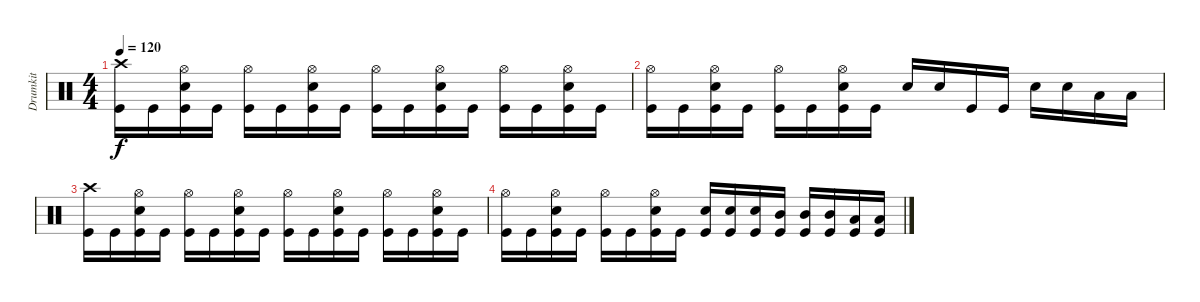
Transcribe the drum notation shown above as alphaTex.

\track ("Drumkit" "Drumkit") {instrument percussion}
\staff {score}
\articulation defaults
\ts (4 4)
\tempo 120
\clef neutral
\ks c
("Crash high (hit)" "Kick (hit)").16{dy f} "Kick (hit)".16 ("Hi-Hat (open)" "Snare (hit) 2" "Kick (hit)").16 "Kick (hit)".16 ("Hi-Hat (open)" "Kick (hit)").16 "Kick (hit)".16 ("Hi-Hat (open)" "Snare (hit) 2" "Kick (hit)").16 "Kick (hit)".16 ("Hi-Hat (open)" "Kick (hit)").16 "Kick (hit)".16 ("Hi-Hat (open)" "Snare (hit) 2" "Kick (hit)").16 "Kick (hit)".16 ("Hi-Hat (open)" "Kick (hit)").16 "Kick (hit)".16 ("Hi-Hat (open)" "Snare (hit) 2" "Kick (hit)").16 "Kick (hit)".16 |
("Hi-Hat (open)" "Kick (hit)").16 "Kick (hit)".16 ("Hi-Hat (open)" "Snare (hit) 2" "Kick (hit)").16 "Kick (hit)".16 ("Hi-Hat (open)" "Kick (hit)").16 "Kick (hit)".16 ("Hi-Hat (open)" "Snare (hit) 2" "Kick (hit)").16 "Kick (hit)".16 "Snare (hit) 2".16 "Snare (hit) 2".16 "Kick (hit)".16 "Kick (hit)".16 "Snare (hit) 2".16 "Snare (hit) 2".16 "Low Tom (hit)".16 "Low Tom (hit)".16 |
("Crash high (hit)" "Kick (hit)").16 "Kick (hit)".16 ("Hi-Hat (open)" "Snare (hit) 2" "Kick (hit)").16 "Kick (hit)".16 ("Hi-Hat (open)" "Kick (hit)").16 "Kick (hit)".16 ("Hi-Hat (open)" "Snare (hit) 2" "Kick (hit)").16 "Kick (hit)".16 ("Hi-Hat (open)" "Kick (hit)").16 "Kick (hit)".16 ("Hi-Hat (open)" "Snare (hit) 2" "Kick (hit)").16 "Kick (hit)".16 ("Hi-Hat (open)" "Kick (hit)").16 "Kick (hit)".16 ("Hi-Hat (open)" "Snare (hit) 2" "Kick (hit)").16 "Kick (hit)".16 |
("Hi-Hat (open)" "Kick (hit)").16 "Kick (hit)".16 ("Hi-Hat (open)" "Snare (hit) 2" "Kick (hit)").16 "Kick (hit)".16 ("Hi-Hat (open)" "Kick (hit)").16 "Kick (hit)".16 ("Hi-Hat (open)" "Snare (hit) 2" "Kick (hit)").16 "Kick (hit)".16 ("Snare (hit) 2" "Kick (hit)").16 ("Snare (hit) 2" "Kick (hit)").16 ("Snare (hit) 2" "Kick (hit)").16 ("Mid Tom (hit)" "Kick (hit)").16 ("Mid Tom (hit)" "Kick (hit)").16 ("Mid Tom (hit)" "Kick (hit)").16 ("Low Tom (hit)" "Kick (hit)").16 ("Low Tom (hit)" "Kick (hit)").16
